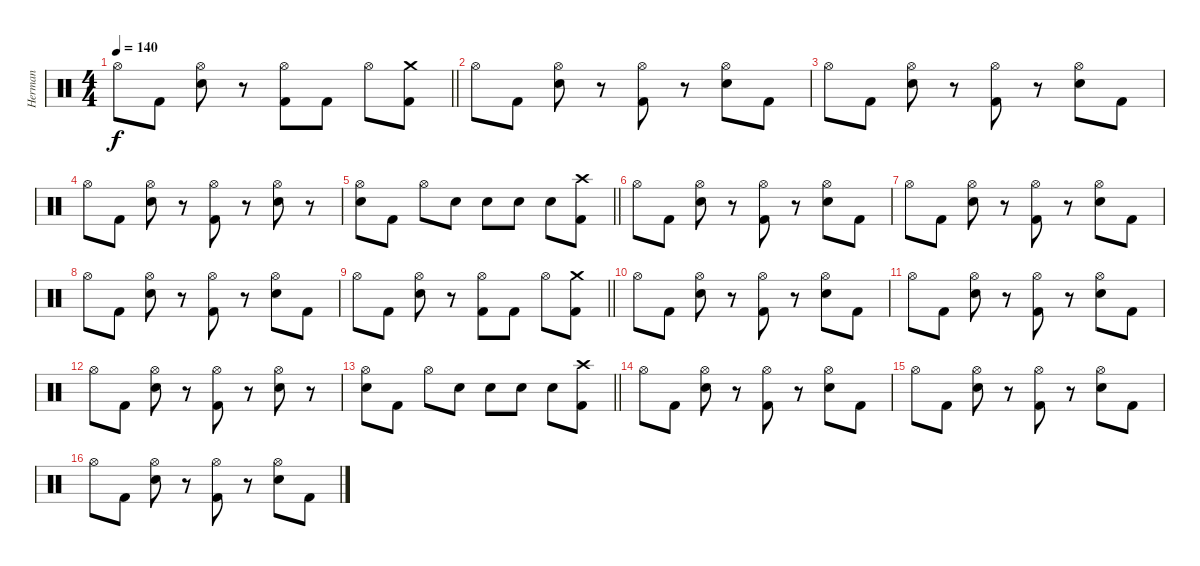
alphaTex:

\track ("Herman" "Herman") {instrument percussion}
\staff {score}
\articulation defaults
\ts (4 4)
\tempo 140
\clef neutral
\barLineRight lightlight
\ks c "Hi-Hat (open)".8{dy f} "Kick (hit) 2".8
("Hi-Hat (open)" "Electric Snare (hit)").8 r.8 ("Hi-Hat (open)" "Kick (hit) 2").8 "Kick (hit) 2".8 "Hi-Hat (open)".8 ("Crash medium (hit)" "Kick (hit) 2").8 |
"Hi-Hat (open)".8 "Kick (hit) 2".8 ("Hi-Hat (open)" "Electric Snare (hit)").8 r.8 ("Hi-Hat (open)" "Kick (hit) 2").8 r.8 ("Hi-Hat (open)" "Electric Snare (hit)").8 "Kick (hit) 2".8 |
"Hi-Hat (open)".8 "Kick (hit) 2".8 ("Hi-Hat (open)" "Electric Snare (hit)").8 r.8 ("Hi-Hat (open)" "Kick (hit) 2").8 r.8 ("Hi-Hat (open)" "Electric Snare (hit)").8 "Kick (hit) 2".8 |
"Hi-Hat (open)".8 "Kick (hit) 2".8 ("Hi-Hat (open)" "Electric Snare (hit)").8 r.8 ("Hi-Hat (open)" "Kick (hit) 2").8 r.8 ("Hi-Hat (open)" "Electric Snare (hit)").8 r.8 |
\barLineRight lightlight
("Hi-Hat (open)" "Electric Snare (hit)").8 "Kick (hit) 2".8 "Hi-Hat (open)".8 "Electric Snare (hit)".8 "Electric Snare (hit)".8 "Electric Snare (hit)".8 "Electric Snare (hit)".8 ("Crash high (hit)" "Kick (hit) 2").8 |
"Hi-Hat (open)".8 "Kick (hit) 2".8 ("Hi-Hat (open)" "Electric Snare (hit)").8 r.8 ("Hi-Hat (open)" "Kick (hit) 2").8 r.8 ("Hi-Hat (open)" "Electric Snare (hit)").8 "Kick (hit) 2".8 |
"Hi-Hat (open)".8 "Kick (hit) 2".8 ("Hi-Hat (open)" "Electric Snare (hit)").8 r.8 ("Hi-Hat (open)" "Kick (hit) 2").8 r.8 ("Hi-Hat (open)" "Electric Snare (hit)").8 "Kick (hit) 2".8 |
"Hi-Hat (open)".8 "Kick (hit) 2".8 ("Hi-Hat (open)" "Electric Snare (hit)").8 r.8 ("Hi-Hat (open)" "Kick (hit) 2").8 r.8 ("Hi-Hat (open)" "Electric Snare (hit)").8 "Kick (hit) 2".8 |
\barLineRight lightlight "Hi-Hat (open)".8 "Kick (hit) 2".8
("Hi-Hat (open)" "Electric Snare (hit)").8 r.8 ("Hi-Hat (open)" "Kick (hit) 2").8 "Kick (hit) 2".8 "Hi-Hat (open)".8 ("Crash medium (hit)" "Kick (hit) 2").8 |
"Hi-Hat (open)".8 "Kick (hit) 2".8 ("Hi-Hat (open)" "Electric Snare (hit)").8 r.8 ("Hi-Hat (open)" "Kick (hit) 2").8 r.8 ("Hi-Hat (open)" "Electric Snare (hit)").8 "Kick (hit) 2".8 |
"Hi-Hat (open)".8 "Kick (hit) 2".8 ("Hi-Hat (open)" "Electric Snare (hit)").8 r.8 ("Hi-Hat (open)" "Kick (hit) 2").8 r.8 ("Hi-Hat (open)" "Electric Snare (hit)").8 "Kick (hit) 2".8 |
"Hi-Hat (open)".8 "Kick (hit) 2".8 ("Hi-Hat (open)" "Electric Snare (hit)").8 r.8 ("Hi-Hat (open)" "Kick (hit) 2").8 r.8 ("Hi-Hat (open)" "Electric Snare (hit)").8 r.8 |
\barLineRight lightlight
("Hi-Hat (open)" "Electric Snare (hit)").8 "Kick (hit) 2".8 "Hi-Hat (open)".8 "Electric Snare (hit)".8 "Electric Snare (hit)".8 "Electric Snare (hit)".8 "Electric Snare (hit)".8 ("Crash high (hit)" "Kick (hit) 2").8 |
"Hi-Hat (open)".8 "Kick (hit) 2".8 ("Hi-Hat (open)" "Electric Snare (hit)").8 r.8 ("Hi-Hat (open)" "Kick (hit) 2").8 r.8 ("Hi-Hat (open)" "Electric Snare (hit)").8 "Kick (hit) 2".8 |
"Hi-Hat (open)".8 "Kick (hit) 2".8 ("Hi-Hat (open)" "Electric Snare (hit)").8 r.8 ("Hi-Hat (open)" "Kick (hit) 2").8 r.8 ("Hi-Hat (open)" "Electric Snare (hit)").8 "Kick (hit) 2".8 |
"Hi-Hat (open)".8 "Kick (hit) 2".8 ("Hi-Hat (open)" "Electric Snare (hit)").8 r.8 ("Hi-Hat (open)" "Kick (hit) 2").8 r.8 ("Hi-Hat (open)" "Electric Snare (hit)").8 "Kick (hit) 2".8
